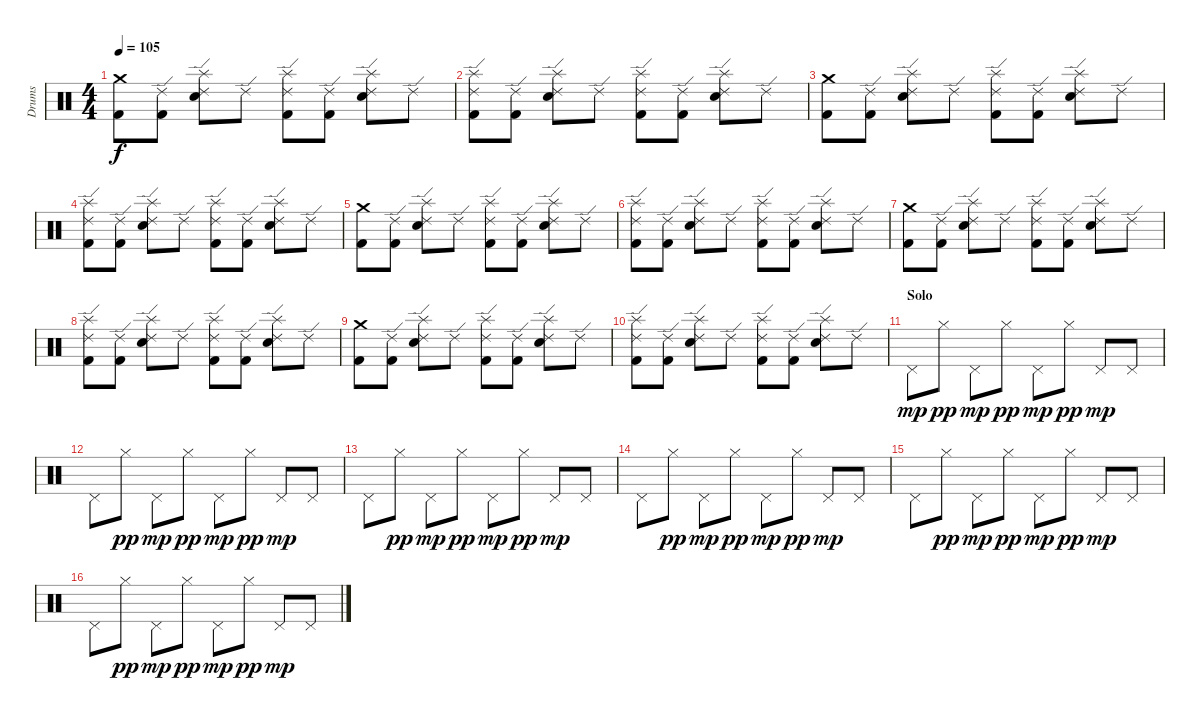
\track ("Drums" "Drums") {instrument percussion}
\staff {score}
\articulation defaults
\ts (4 4)
\tempo 105
\clef neutral
\ks c
("Crash medium (hit)" "Kick (hit) 2").8{dy f} ("Ride (edge) 2" "Kick (hit) 2").8 ("Ride (edge) 2" "Splash (hit)" "Electric Snare (hit)").8 "Ride (edge) 2".8 ("Ride (edge) 2" "Splash (hit)" "Kick (hit) 2").8 ("Ride (edge) 2" "Kick (hit) 2").8 ("Ride (edge) 2" "Splash (hit)" "Electric Snare (hit)").8 "Ride (edge) 2".8 |
("Ride (edge) 2" "Splash (hit)" "Kick (hit) 2").8 ("Ride (edge) 2" "Kick (hit) 2").8 ("Ride (edge) 2" "Splash (hit)" "Electric Snare (hit)").8 "Ride (edge) 2".8 ("Ride (edge) 2" "Splash (hit)" "Kick (hit) 2").8 ("Ride (edge) 2" "Kick (hit) 2").8 ("Ride (edge) 2" "Splash (hit)" "Electric Snare (hit)").8 "Ride (edge) 2".8 |
("Crash medium (hit)" "Kick (hit) 2").8 ("Ride (edge) 2" "Kick (hit) 2").8 ("Ride (edge) 2" "Splash (hit)" "Electric Snare (hit)").8 "Ride (edge) 2".8 ("Ride (edge) 2" "Splash (hit)" "Kick (hit) 2").8 ("Ride (edge) 2" "Kick (hit) 2").8 ("Ride (edge) 2" "Splash (hit)" "Electric Snare (hit)").8 "Ride (edge) 2".8 |
("Ride (edge) 2" "Splash (hit)" "Kick (hit) 2").8 ("Ride (edge) 2" "Kick (hit) 2").8 ("Ride (edge) 2" "Splash (hit)" "Electric Snare (hit)").8 "Ride (edge) 2".8 ("Ride (edge) 2" "Splash (hit)" "Kick (hit) 2").8 ("Ride (edge) 2" "Kick (hit) 2").8 ("Ride (edge) 2" "Splash (hit)" "Electric Snare (hit)").8 "Ride (edge) 2".8 |
("Crash medium (hit)" "Kick (hit) 2").8 ("Ride (edge) 2" "Kick (hit) 2").8 ("Ride (edge) 2" "Splash (hit)" "Electric Snare (hit)").8 "Ride (edge) 2".8 ("Ride (edge) 2" "Splash (hit)" "Kick (hit) 2").8 ("Ride (edge) 2" "Kick (hit) 2").8 ("Ride (edge) 2" "Splash (hit)" "Electric Snare (hit)").8 "Ride (edge) 2".8 |
("Ride (edge) 2" "Splash (hit)" "Kick (hit) 2").8 ("Ride (edge) 2" "Kick (hit) 2").8 ("Ride (edge) 2" "Splash (hit)" "Electric Snare (hit)").8 "Ride (edge) 2".8 ("Ride (edge) 2" "Splash (hit)" "Kick (hit) 2").8 ("Ride (edge) 2" "Kick (hit) 2").8 ("Ride (edge) 2" "Splash (hit)" "Electric Snare (hit)").8 "Ride (edge) 2".8 |
("Crash medium (hit)" "Kick (hit) 2").8 ("Ride (edge) 2" "Kick (hit) 2").8 ("Ride (edge) 2" "Splash (hit)" "Electric Snare (hit)").8 "Ride (edge) 2".8 ("Ride (edge) 2" "Splash (hit)" "Kick (hit) 2").8 ("Ride (edge) 2" "Kick (hit) 2").8 ("Ride (edge) 2" "Splash (hit)" "Electric Snare (hit)").8 "Ride (edge) 2".8 |
("Ride (edge) 2" "Splash (hit)" "Kick (hit) 2").8 ("Ride (edge) 2" "Kick (hit) 2").8 ("Ride (edge) 2" "Splash (hit)" "Electric Snare (hit)").8 "Ride (edge) 2".8 ("Ride (edge) 2" "Splash (hit)" "Kick (hit) 2").8 ("Ride (edge) 2" "Kick (hit) 2").8 ("Ride (edge) 2" "Splash (hit)" "Electric Snare (hit)").8 "Ride (edge) 2".8 |
("Crash medium (hit)" "Kick (hit) 2").8 ("Ride (edge) 2" "Kick (hit) 2").8 ("Ride (edge) 2" "Splash (hit)" "Electric Snare (hit)").8 "Ride (edge) 2".8 ("Ride (edge) 2" "Splash (hit)" "Kick (hit) 2").8 ("Ride (edge) 2" "Kick (hit) 2").8 ("Ride (edge) 2" "Splash (hit)" "Electric Snare (hit)").8 "Ride (edge) 2".8 |
("Ride (edge) 2" "Splash (hit)" "Kick (hit) 2").8 ("Ride (edge) 2" "Kick (hit) 2").8 ("Ride (edge) 2" "Splash (hit)" "Electric Snare (hit)").8 "Ride (edge) 2".8 ("Ride (edge) 2" "Splash (hit)" "Kick (hit) 2").8 ("Ride (edge) 2" "Kick (hit) 2").8 ("Ride (edge) 2" "Splash (hit)" "Electric Snare (hit)").8 "Ride (edge) 2".8 |
\section ("" "Solo")
"Pedal Hi-Hat (hit)".8{dy mp} "Hi-Hat (closed)".8{dy pp} "Pedal Hi-Hat (hit)".8{dy mp} "Hi-Hat (closed)".8{dy pp} "Pedal Hi-Hat (hit)".8{dy mp} "Hi-Hat (closed)".8{dy pp} "Pedal Hi-Hat (hit)".8{dy mp} "Pedal Hi-Hat (hit)".8 |
"Pedal Hi-Hat (hit)".8 "Hi-Hat (closed)".8{dy pp} "Pedal Hi-Hat (hit)".8{dy mp} "Hi-Hat (closed)".8{dy pp} "Pedal Hi-Hat (hit)".8{dy mp} "Hi-Hat (closed)".8{dy pp} "Pedal Hi-Hat (hit)".8{dy mp} "Pedal Hi-Hat (hit)".8 |
"Pedal Hi-Hat (hit)".8 "Hi-Hat (closed)".8{dy pp} "Pedal Hi-Hat (hit)".8{dy mp} "Hi-Hat (closed)".8{dy pp} "Pedal Hi-Hat (hit)".8{dy mp} "Hi-Hat (closed)".8{dy pp} "Pedal Hi-Hat (hit)".8{dy mp} "Pedal Hi-Hat (hit)".8 |
"Pedal Hi-Hat (hit)".8 "Hi-Hat (closed)".8{dy pp} "Pedal Hi-Hat (hit)".8{dy mp} "Hi-Hat (closed)".8{dy pp} "Pedal Hi-Hat (hit)".8{dy mp} "Hi-Hat (closed)".8{dy pp} "Pedal Hi-Hat (hit)".8{dy mp} "Pedal Hi-Hat (hit)".8 |
"Pedal Hi-Hat (hit)".8 "Hi-Hat (closed)".8{dy pp} "Pedal Hi-Hat (hit)".8{dy mp} "Hi-Hat (closed)".8{dy pp} "Pedal Hi-Hat (hit)".8{dy mp} "Hi-Hat (closed)".8{dy pp} "Pedal Hi-Hat (hit)".8{dy mp} "Pedal Hi-Hat (hit)".8 |
"Pedal Hi-Hat (hit)".8 "Hi-Hat (closed)".8{dy pp} "Pedal Hi-Hat (hit)".8{dy mp} "Hi-Hat (closed)".8{dy pp} "Pedal Hi-Hat (hit)".8{dy mp} "Hi-Hat (closed)".8{dy pp} "Pedal Hi-Hat (hit)".8{dy mp} "Pedal Hi-Hat (hit)".8
